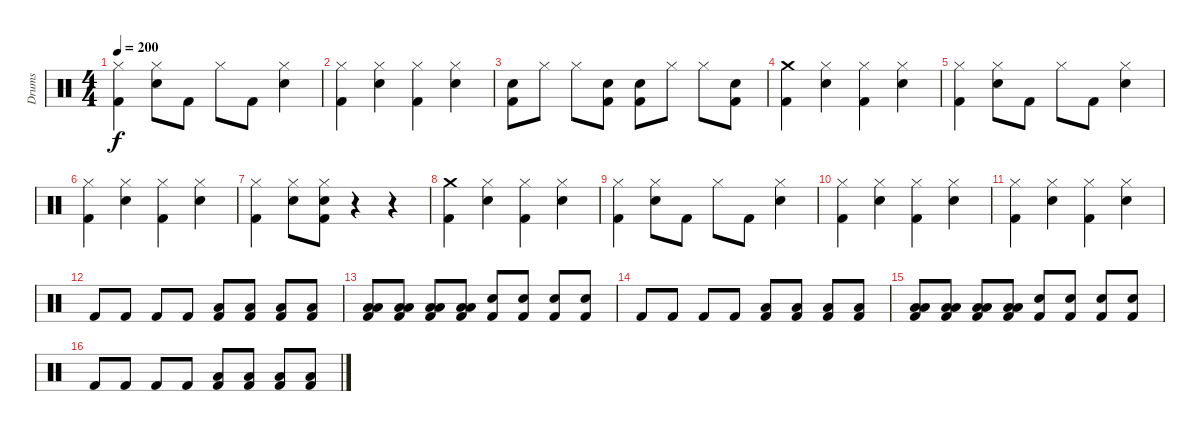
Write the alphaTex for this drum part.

\track ("Drums" "Drums") {instrument percussion}
\staff {score}
\articulation defaults
\ts (4 4)
\tempo 200
\clef neutral
\ks c
("Hi-Hat (closed)" "Kick (hit) 2").4{dy f} ("Hi-Hat (closed)" "Snare (hit) 2").8 "Kick (hit) 2".8 "Hi-Hat (closed)".8 "Kick (hit) 2".8 ("Hi-Hat (closed)" "Snare (hit) 2").4 |
("Hi-Hat (closed)" "Kick (hit) 2").4 ("Hi-Hat (closed)" "Snare (hit) 2").4 ("Hi-Hat (closed)" "Kick (hit) 2").4 ("Hi-Hat (closed)" "Snare (hit) 2").4 |
("Snare (hit) 2" "Kick (hit) 2").8 "Hi-Hat (closed)".8 "Hi-Hat (closed)".8 ("Snare (hit) 2" "Kick (hit) 2").8 ("Snare (hit) 2" "Kick (hit) 2").8 "Hi-Hat (closed)".8 "Hi-Hat (closed)".8 ("Snare (hit) 2" "Kick (hit) 2").8 |
("Crash medium (hit)" "Kick (hit) 2").4 ("Hi-Hat (closed)" "Snare (hit) 2").4 ("Hi-Hat (closed)" "Kick (hit) 2").4 ("Hi-Hat (closed)" "Snare (hit) 2").4 |
("Hi-Hat (closed)" "Kick (hit) 2").4 ("Hi-Hat (closed)" "Snare (hit) 2").8 "Kick (hit) 2".8 "Hi-Hat (closed)".8 "Kick (hit) 2".8 ("Hi-Hat (closed)" "Snare (hit) 2").4 |
("Hi-Hat (closed)" "Kick (hit) 2").4 ("Hi-Hat (closed)" "Snare (hit) 2").4 ("Hi-Hat (closed)" "Kick (hit) 2").4 ("Hi-Hat (closed)" "Snare (hit) 2").4 |
("Hi-Hat (closed)" "Kick (hit) 2").4 ("Hi-Hat (closed)" "Snare (hit) 2").8 ("Hi-Hat (closed)" "Snare (hit) 2" "Kick (hit) 2").8 r.4 r.4 |
("Crash medium (hit)" "Kick (hit) 2").4 ("Hi-Hat (closed)" "Snare (hit) 2").4 ("Hi-Hat (closed)" "Kick (hit) 2").4 ("Hi-Hat (closed)" "Snare (hit) 2").4 |
("Hi-Hat (closed)" "Kick (hit) 2").4 ("Hi-Hat (closed)" "Snare (hit) 2").8 "Kick (hit) 2".8 "Hi-Hat (closed)".8 "Kick (hit) 2".8 ("Hi-Hat (closed)" "Snare (hit) 2").4 |
("Hi-Hat (closed)" "Kick (hit) 2").4 ("Hi-Hat (closed)" "Snare (hit) 2").4 ("Hi-Hat (closed)" "Kick (hit) 2").4 ("Hi-Hat (closed)" "Snare (hit) 2").4 |
("Hi-Hat (closed)" "Kick (hit) 2").4 ("Hi-Hat (closed)" "Snare (hit) 2").4 ("Hi-Hat (closed)" "Kick (hit) 2").4 ("Hi-Hat (closed)" "Snare (hit) 2").4 |
\section ("" "")
"Kick (hit) 2".8 "Kick (hit) 2".8 "Kick (hit) 2".8 "Kick (hit) 2".8 ("Low Floor Tom (hit)" "Kick (hit) 2").8 ("Low Floor Tom (hit)" "Kick (hit) 2").8 ("Low Floor Tom (hit)" "Kick (hit) 2").8 ("Low Floor Tom (hit)" "Kick (hit) 2").8 |
("Low Tom (hit)" "Low Floor Tom (hit)" "Kick (hit) 2").8 ("Low Tom (hit)" "Low Floor Tom (hit)" "Kick (hit) 2").8 ("Low Tom (hit)" "Low Floor Tom (hit)" "Kick (hit) 2").8 ("Low Tom (hit)" "Low Floor Tom (hit)" "Kick (hit) 2").8 ("Snare (hit) 2" "Kick (hit) 2").8 ("Snare (hit) 2" "Kick (hit) 2").8 ("Snare (hit) 2" "Kick (hit) 2").8 ("Snare (hit) 2" "Kick (hit) 2").8 |
"Kick (hit) 2".8 "Kick (hit) 2".8 "Kick (hit) 2".8 "Kick (hit) 2".8 ("Low Floor Tom (hit)" "Kick (hit) 2").8 ("Low Floor Tom (hit)" "Kick (hit) 2").8 ("Low Floor Tom (hit)" "Kick (hit) 2").8 ("Low Floor Tom (hit)" "Kick (hit) 2").8 |
("Low Tom (hit)" "Low Floor Tom (hit)" "Kick (hit) 2").8 ("Low Tom (hit)" "Low Floor Tom (hit)" "Kick (hit) 2").8 ("Low Tom (hit)" "Low Floor Tom (hit)" "Kick (hit) 2").8 ("Low Tom (hit)" "Low Floor Tom (hit)" "Kick (hit) 2").8 ("Snare (hit) 2" "Kick (hit) 2").8 ("Snare (hit) 2" "Kick (hit) 2").8 ("Snare (hit) 2" "Kick (hit) 2").8 ("Snare (hit) 2" "Kick (hit) 2").8 |
"Kick (hit) 2".8 "Kick (hit) 2".8 "Kick (hit) 2".8 "Kick (hit) 2".8 ("Low Floor Tom (hit)" "Kick (hit) 2").8 ("Low Floor Tom (hit)" "Kick (hit) 2").8 ("Low Floor Tom (hit)" "Kick (hit) 2").8 ("Low Floor Tom (hit)" "Kick (hit) 2").8
